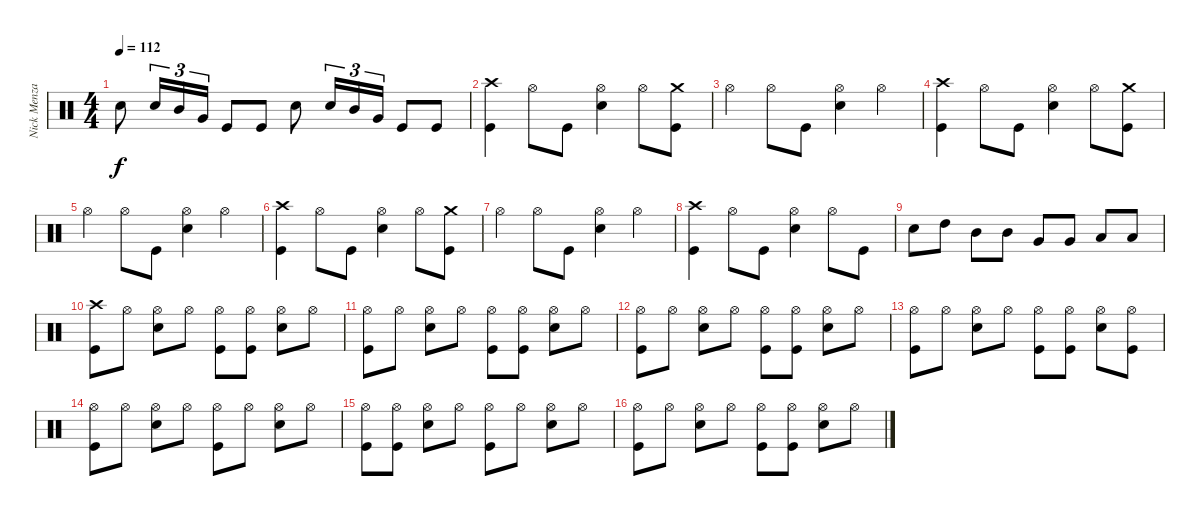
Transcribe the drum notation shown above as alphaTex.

\track ("Nick Menza" "Nick Menza") {instrument percussion}
\staff {score}
\articulation defaults
\ts (4 4)
\tempo 112
\clef neutral
\ks c "Snare (hit) 2".8{dy f} "Snare (hit) 2".16{tu (3 2)} "Mid Tom (hit)".16{tu (3 2)} "Very Low Tom (hit)".16{tu (3 2)} "Kick (hit)".8 "Kick (hit)".8 "Snare (hit) 2".8 "Snare (hit) 2".16{tu (3 2)} "Mid Tom (hit)".16{tu (3 2)} "Very Low Tom (hit)".16{tu (3 2)} "Kick (hit)".8 "Kick (hit)".8
|
("Crash high (hit)" "Kick (hit)").4 "Hi-Hat (open)".8 "Kick (hit)".8 ("Hi-Hat (open)" "Snare (hit) 2").4 "Hi-Hat (open)".8 ("Crash medium (hit)" "Kick (hit)").8 |
"Hi-Hat (open)".4 "Hi-Hat (open)".8 "Kick (hit)".8 ("Hi-Hat (open)" "Snare (hit) 2").4 "Hi-Hat (open)".4 |
("Crash high (hit)" "Kick (hit)").4 "Hi-Hat (open)".8 "Kick (hit)".8 ("Hi-Hat (open)" "Snare (hit) 2").4 "Hi-Hat (open)".8 ("Crash medium (hit)" "Kick (hit)").8 |
"Hi-Hat (open)".4 "Hi-Hat (open)".8 "Kick (hit)".8 ("Hi-Hat (open)" "Snare (hit) 2").4 "Hi-Hat (open)".4 |
("Crash high (hit)" "Kick (hit)").4 "Hi-Hat (open)".8 "Kick (hit)".8 ("Hi-Hat (open)" "Snare (hit) 2").4 "Hi-Hat (open)".8 ("Crash medium (hit)" "Kick (hit)").8 |
"Hi-Hat (open)".4 "Hi-Hat (open)".8 "Kick (hit)".8 ("Hi-Hat (open)" "Snare (hit) 2").4 "Hi-Hat (open)".4 |
("Crash high (hit)" "Kick (hit)").4 "Hi-Hat (open)".8 "Kick (hit)".8 ("Hi-Hat (open)" "Snare (hit) 2").4 "Hi-Hat (open)".8 "Kick (hit)".8 |
"Snare (hit) 2".8 "High Tom (hit)".8 "Mid Tom (hit)".8 "Mid Tom (hit)".8 "Very Low Tom (hit)".8 "Very Low Tom (hit)".8 "Low Floor Tom (hit)".8 "Low Floor Tom (hit)".8 |
("Crash high (hit)" "Kick (hit)").8 "Hi-Hat (open)".8 ("Hi-Hat (open)" "Snare (hit) 2").8 "Hi-Hat (open)".8 ("Hi-Hat (open)" "Kick (hit)").8 ("Hi-Hat (open)" "Kick (hit)").8 ("Hi-Hat (open)" "Snare (hit) 2").8 "Hi-Hat (open)".8 |
("Hi-Hat (open)" "Kick (hit)").8 "Hi-Hat (open)".8 ("Hi-Hat (open)" "Snare (hit) 2").8 "Hi-Hat (open)".8 ("Hi-Hat (open)" "Kick (hit)").8 ("Hi-Hat (open)" "Kick (hit)").8 ("Hi-Hat (open)" "Snare (hit) 2").8 "Hi-Hat (open)".8 |
("Hi-Hat (open)" "Kick (hit)").8 "Hi-Hat (open)".8 ("Hi-Hat (open)" "Snare (hit) 2").8 "Hi-Hat (open)".8 ("Hi-Hat (open)" "Kick (hit)").8 ("Hi-Hat (open)" "Kick (hit)").8 ("Hi-Hat (open)" "Snare (hit) 2").8 "Hi-Hat (open)".8 |
("Hi-Hat (open)" "Kick (hit)").8 "Hi-Hat (open)".8 ("Hi-Hat (open)" "Snare (hit) 2").8 "Hi-Hat (open)".8 ("Hi-Hat (open)" "Kick (hit)").8 ("Hi-Hat (open)" "Kick (hit)").8 ("Hi-Hat (open)" "Snare (hit) 2").8 ("Hi-Hat (open)" "Kick (hit)").8 |
("Hi-Hat (open)" "Kick (hit)").8 "Hi-Hat (open)".8 ("Hi-Hat (open)" "Snare (hit) 2").8 "Hi-Hat (open)".8 ("Hi-Hat (open)" "Kick (hit)").8 "Hi-Hat (open)".8 ("Hi-Hat (open)" "Snare (hit) 2").8 "Hi-Hat (open)".8 |
("Hi-Hat (open)" "Kick (hit)").8 ("Hi-Hat (open)" "Kick (hit)").8 ("Hi-Hat (open)" "Snare (hit) 2").8 "Hi-Hat (open)".8 ("Hi-Hat (open)" "Kick (hit)").8 "Hi-Hat (open)".8 ("Hi-Hat (open)" "Snare (hit) 2").8 "Hi-Hat (open)".8 |
("Hi-Hat (open)" "Kick (hit)").8 "Hi-Hat (open)".8 ("Hi-Hat (open)" "Snare (hit) 2").8 "Hi-Hat (open)".8 ("Hi-Hat (open)" "Kick (hit)").8 ("Hi-Hat (open)" "Kick (hit)").8 ("Hi-Hat (open)" "Snare (hit) 2").8 "Hi-Hat (open)".8
